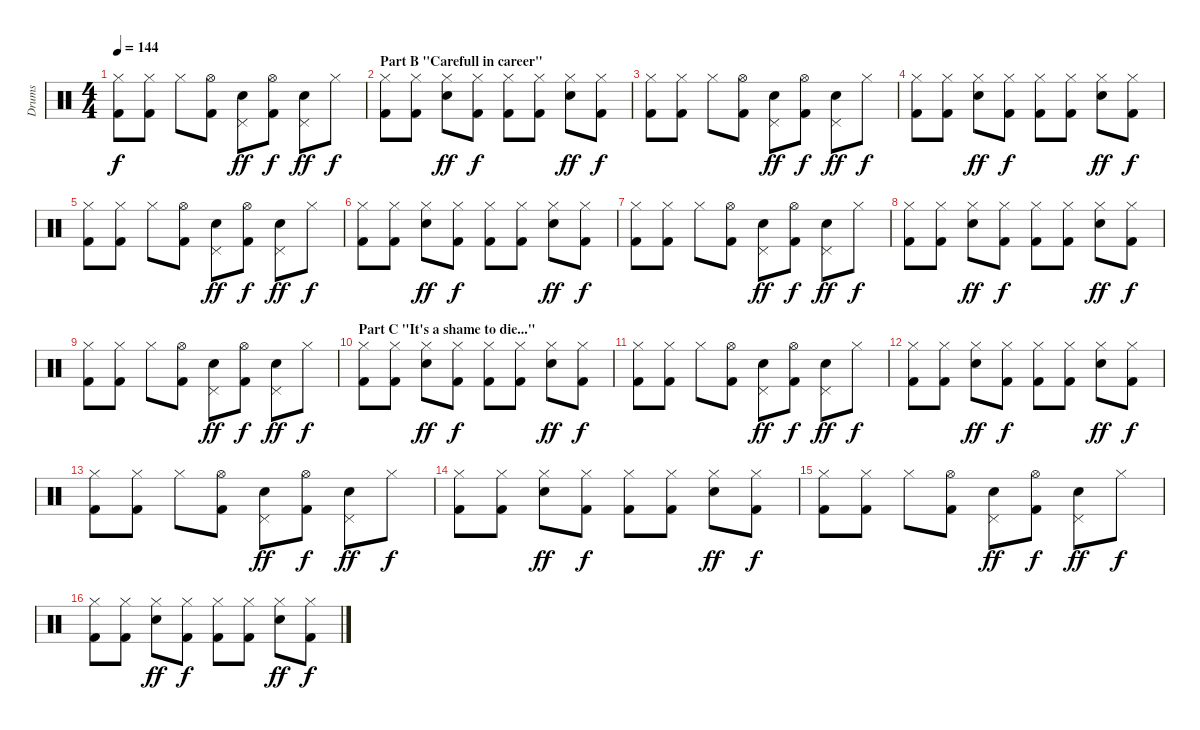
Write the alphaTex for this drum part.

\track ("Drums" "Drums") {instrument percussion}
\staff {score}
\articulation defaults
\ts (4 4)
\tempo 144
\clef neutral
\ks c
("Hi-Hat (closed)" "Kick (hit) 2").8{dy f} ("Hi-Hat (closed)" "Kick (hit) 2").8 "Hi-Hat (closed)".8 ("Hi-Hat (open)" "Kick (hit) 2").8 ("Pedal Hi-Hat (hit)" "Electric Snare (hit)").8{dy ff} ("Hi-Hat (open)" "Kick (hit) 2").8{dy f} ("Pedal Hi-Hat (hit)" "Electric Snare (hit)").8{dy ff} "Hi-Hat (closed)".8{dy f} |
\section ("" "Part B \"Carefull in career\"")
("Hi-Hat (closed)" "Kick (hit) 2").8 ("Hi-Hat (closed)" "Kick (hit) 2").8 ("Hi-Hat (closed)" "Electric Snare (hit)").8{dy ff} ("Hi-Hat (closed)" "Kick (hit) 2").8{dy f} ("Hi-Hat (closed)" "Kick (hit) 2").8 ("Hi-Hat (closed)" "Kick (hit) 2").8 ("Hi-Hat (closed)" "Electric Snare (hit)").8{dy ff} ("Hi-Hat (closed)" "Kick (hit) 2").8{dy f} |
("Hi-Hat (closed)" "Kick (hit) 2").8 ("Hi-Hat (closed)" "Kick (hit) 2").8 "Hi-Hat (closed)".8 ("Hi-Hat (open)" "Kick (hit) 2").8 ("Pedal Hi-Hat (hit)" "Electric Snare (hit)").8{dy ff} ("Hi-Hat (open)" "Kick (hit) 2").8{dy f} ("Pedal Hi-Hat (hit)" "Electric Snare (hit)").8{dy ff} "Hi-Hat (closed)".8{dy f} |
("Hi-Hat (closed)" "Kick (hit) 2").8 ("Hi-Hat (closed)" "Kick (hit) 2").8 ("Hi-Hat (closed)" "Electric Snare (hit)").8{dy ff} ("Hi-Hat (closed)" "Kick (hit) 2").8{dy f} ("Hi-Hat (closed)" "Kick (hit) 2").8 ("Hi-Hat (closed)" "Kick (hit) 2").8 ("Hi-Hat (closed)" "Electric Snare (hit)").8{dy ff} ("Hi-Hat (closed)" "Kick (hit) 2").8{dy f} |
("Hi-Hat (closed)" "Kick (hit) 2").8 ("Hi-Hat (closed)" "Kick (hit) 2").8 "Hi-Hat (closed)".8 ("Hi-Hat (open)" "Kick (hit) 2").8 ("Pedal Hi-Hat (hit)" "Electric Snare (hit)").8{dy ff} ("Hi-Hat (open)" "Kick (hit) 2").8{dy f} ("Pedal Hi-Hat (hit)" "Electric Snare (hit)").8{dy ff} "Hi-Hat (closed)".8{dy f} |
("Hi-Hat (closed)" "Kick (hit) 2").8 ("Hi-Hat (closed)" "Kick (hit) 2").8 ("Hi-Hat (closed)" "Electric Snare (hit)").8{dy ff} ("Hi-Hat (closed)" "Kick (hit) 2").8{dy f} ("Hi-Hat (closed)" "Kick (hit) 2").8 ("Hi-Hat (closed)" "Kick (hit) 2").8 ("Hi-Hat (closed)" "Electric Snare (hit)").8{dy ff} ("Hi-Hat (closed)" "Kick (hit) 2").8{dy f} |
("Hi-Hat (closed)" "Kick (hit) 2").8 ("Hi-Hat (closed)" "Kick (hit) 2").8 "Hi-Hat (closed)".8 ("Hi-Hat (open)" "Kick (hit) 2").8 ("Pedal Hi-Hat (hit)" "Electric Snare (hit)").8{dy ff} ("Hi-Hat (open)" "Kick (hit) 2").8{dy f} ("Pedal Hi-Hat (hit)" "Electric Snare (hit)").8{dy ff} "Hi-Hat (closed)".8{dy f} |
("Hi-Hat (closed)" "Kick (hit) 2").8 ("Hi-Hat (closed)" "Kick (hit) 2").8 ("Hi-Hat (closed)" "Electric Snare (hit)").8{dy ff} ("Hi-Hat (closed)" "Kick (hit) 2").8{dy f} ("Hi-Hat (closed)" "Kick (hit) 2").8 ("Hi-Hat (closed)" "Kick (hit) 2").8 ("Hi-Hat (closed)" "Electric Snare (hit)").8{dy ff} ("Hi-Hat (closed)" "Kick (hit) 2").8{dy f} |
("Hi-Hat (closed)" "Kick (hit) 2").8 ("Hi-Hat (closed)" "Kick (hit) 2").8 "Hi-Hat (closed)".8 ("Hi-Hat (open)" "Kick (hit) 2").8 ("Pedal Hi-Hat (hit)" "Electric Snare (hit)").8{dy ff} ("Hi-Hat (open)" "Kick (hit) 2").8{dy f} ("Pedal Hi-Hat (hit)" "Electric Snare (hit)").8{dy ff} "Hi-Hat (closed)".8{dy f} |
\section ("" "Part C \"It's a shame to die...\"")
("Hi-Hat (closed)" "Kick (hit) 2").8 ("Hi-Hat (closed)" "Kick (hit) 2").8 ("Hi-Hat (closed)" "Electric Snare (hit)").8{dy ff} ("Hi-Hat (closed)" "Kick (hit) 2").8{dy f} ("Hi-Hat (closed)" "Kick (hit) 2").8 ("Hi-Hat (closed)" "Kick (hit) 2").8 ("Hi-Hat (closed)" "Electric Snare (hit)").8{dy ff} ("Hi-Hat (closed)" "Kick (hit) 2").8{dy f} |
("Hi-Hat (closed)" "Kick (hit) 2").8 ("Hi-Hat (closed)" "Kick (hit) 2").8 "Hi-Hat (closed)".8 ("Hi-Hat (open)" "Kick (hit) 2").8 ("Pedal Hi-Hat (hit)" "Electric Snare (hit)").8{dy ff} ("Hi-Hat (open)" "Kick (hit) 2").8{dy f} ("Pedal Hi-Hat (hit)" "Electric Snare (hit)").8{dy ff} "Hi-Hat (closed)".8{dy f} |
("Hi-Hat (closed)" "Kick (hit) 2").8 ("Hi-Hat (closed)" "Kick (hit) 2").8 ("Hi-Hat (closed)" "Electric Snare (hit)").8{dy ff} ("Hi-Hat (closed)" "Kick (hit) 2").8{dy f} ("Hi-Hat (closed)" "Kick (hit) 2").8 ("Hi-Hat (closed)" "Kick (hit) 2").8 ("Hi-Hat (closed)" "Electric Snare (hit)").8{dy ff} ("Hi-Hat (closed)" "Kick (hit) 2").8{dy f} |
("Hi-Hat (closed)" "Kick (hit) 2").8 ("Hi-Hat (closed)" "Kick (hit) 2").8 "Hi-Hat (closed)".8 ("Hi-Hat (open)" "Kick (hit) 2").8 ("Pedal Hi-Hat (hit)" "Electric Snare (hit)").8{dy ff} ("Hi-Hat (open)" "Kick (hit) 2").8{dy f} ("Pedal Hi-Hat (hit)" "Electric Snare (hit)").8{dy ff} "Hi-Hat (closed)".8{dy f} |
("Hi-Hat (closed)" "Kick (hit) 2").8 ("Hi-Hat (closed)" "Kick (hit) 2").8 ("Hi-Hat (closed)" "Electric Snare (hit)").8{dy ff} ("Hi-Hat (closed)" "Kick (hit) 2").8{dy f} ("Hi-Hat (closed)" "Kick (hit) 2").8 ("Hi-Hat (closed)" "Kick (hit) 2").8 ("Hi-Hat (closed)" "Electric Snare (hit)").8{dy ff} ("Hi-Hat (closed)" "Kick (hit) 2").8{dy f} |
("Hi-Hat (closed)" "Kick (hit) 2").8 ("Hi-Hat (closed)" "Kick (hit) 2").8 "Hi-Hat (closed)".8 ("Hi-Hat (open)" "Kick (hit) 2").8 ("Pedal Hi-Hat (hit)" "Electric Snare (hit)").8{dy ff} ("Hi-Hat (open)" "Kick (hit) 2").8{dy f} ("Pedal Hi-Hat (hit)" "Electric Snare (hit)").8{dy ff} "Hi-Hat (closed)".8{dy f} |
("Hi-Hat (closed)" "Kick (hit) 2").8 ("Hi-Hat (closed)" "Kick (hit) 2").8 ("Hi-Hat (closed)" "Electric Snare (hit)").8{dy ff} ("Hi-Hat (closed)" "Kick (hit) 2").8{dy f} ("Hi-Hat (closed)" "Kick (hit) 2").8 ("Hi-Hat (closed)" "Kick (hit) 2").8 ("Hi-Hat (closed)" "Electric Snare (hit)").8{dy ff} ("Hi-Hat (closed)" "Kick (hit) 2").8{dy f}
